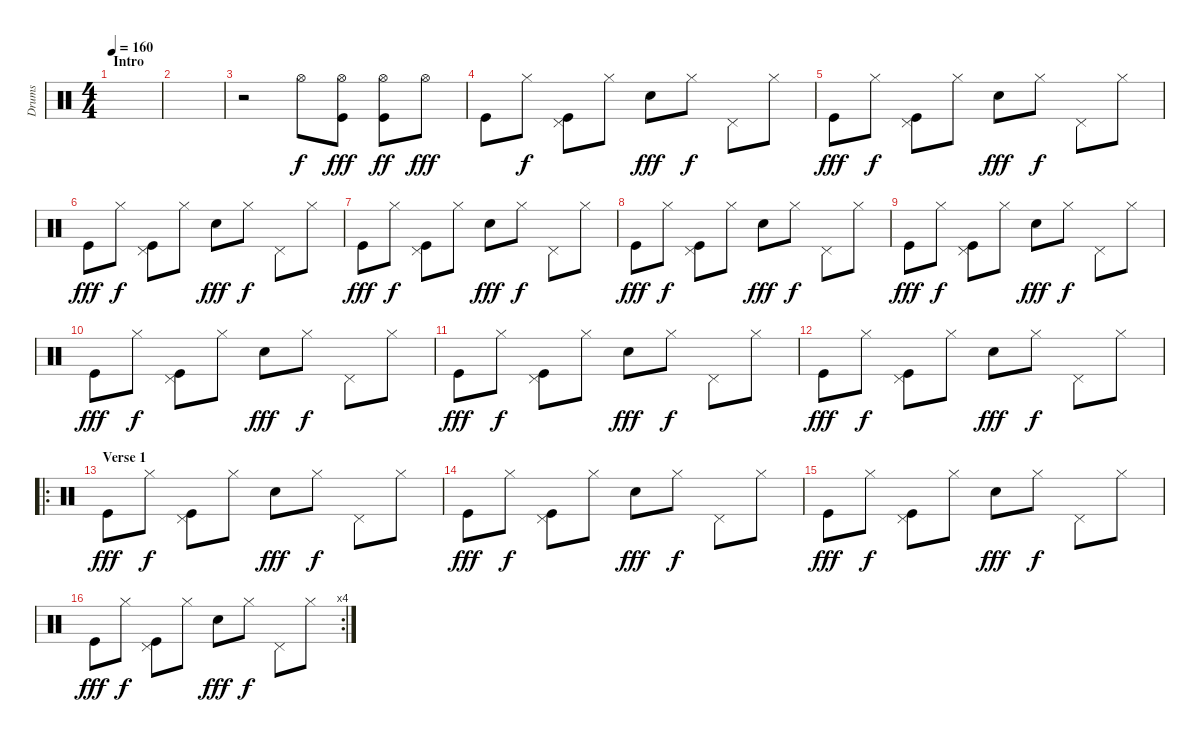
\track ("Drums" "Drums") {instrument percussion}
\staff {score}
\articulation defaults
\ts (4 4)
\section ("" "Intro")
\tempo 160
\clef neutral
\ks c
|
|
r.2 "Hi-Hat (open)".8 ("Kick (hit)" "Hi-Hat (open)").8{dy fff} ("Kick (hit)" "Hi-Hat (open)").8{dy ff} "Hi-Hat (open)".8{dy fff} |
"Kick (hit)".8 "Hi-Hat (closed)".8{dy f} ("Kick (hit)" "Pedal Hi-Hat (hit)").8 "Hi-Hat (closed)".8 "Snare (hit) 2".8{dy fff} "Hi-Hat (closed)".8{dy f} "Pedal Hi-Hat (hit)".8 "Hi-Hat (closed)".8 |
"Kick (hit)".8{dy fff} "Hi-Hat (closed)".8{dy f} ("Kick (hit)" "Pedal Hi-Hat (hit)").8 "Hi-Hat (closed)".8 "Snare (hit) 2".8{dy fff} "Hi-Hat (closed)".8{dy f} "Pedal Hi-Hat (hit)".8 "Hi-Hat (closed)".8 |
"Kick (hit)".8{dy fff} "Hi-Hat (closed)".8{dy f} ("Kick (hit)" "Pedal Hi-Hat (hit)").8 "Hi-Hat (closed)".8 "Snare (hit) 2".8{dy fff} "Hi-Hat (closed)".8{dy f} "Pedal Hi-Hat (hit)".8 "Hi-Hat (closed)".8 |
"Kick (hit)".8{dy fff} "Hi-Hat (closed)".8{dy f} ("Kick (hit)" "Pedal Hi-Hat (hit)").8 "Hi-Hat (closed)".8 "Snare (hit) 2".8{dy fff} "Hi-Hat (closed)".8{dy f} "Pedal Hi-Hat (hit)".8 "Hi-Hat (closed)".8 |
"Kick (hit)".8{dy fff} "Hi-Hat (closed)".8{dy f} ("Kick (hit)" "Pedal Hi-Hat (hit)").8 "Hi-Hat (closed)".8 "Snare (hit) 2".8{dy fff} "Hi-Hat (closed)".8{dy f} "Pedal Hi-Hat (hit)".8 "Hi-Hat (closed)".8 |
"Kick (hit)".8{dy fff} "Hi-Hat (closed)".8{dy f} ("Kick (hit)" "Pedal Hi-Hat (hit)").8 "Hi-Hat (closed)".8 "Snare (hit) 2".8{dy fff} "Hi-Hat (closed)".8{dy f} "Pedal Hi-Hat (hit)".8 "Hi-Hat (closed)".8 |
"Kick (hit)".8{dy fff} "Hi-Hat (closed)".8{dy f} ("Kick (hit)" "Pedal Hi-Hat (hit)").8 "Hi-Hat (closed)".8 "Snare (hit) 2".8{dy fff} "Hi-Hat (closed)".8{dy f} "Pedal Hi-Hat (hit)".8 "Hi-Hat (closed)".8 |
"Kick (hit)".8{dy fff} "Hi-Hat (closed)".8{dy f} ("Kick (hit)" "Pedal Hi-Hat (hit)").8 "Hi-Hat (closed)".8 "Snare (hit) 2".8{dy fff} "Hi-Hat (closed)".8{dy f} "Pedal Hi-Hat (hit)".8 "Hi-Hat (closed)".8 |
"Kick (hit)".8{dy fff} "Hi-Hat (closed)".8{dy f} ("Kick (hit)" "Pedal Hi-Hat (hit)").8 "Hi-Hat (closed)".8 "Snare (hit) 2".8{dy fff} "Hi-Hat (closed)".8{dy f} "Pedal Hi-Hat (hit)".8 "Hi-Hat (closed)".8 |
\ro
\section ("" "Verse 1")
"Kick (hit)".8{dy fff} "Hi-Hat (closed)".8{dy f} ("Kick (hit)" "Pedal Hi-Hat (hit)").8 "Hi-Hat (closed)".8 "Snare (hit) 2".8{dy fff} "Hi-Hat (closed)".8{dy f} "Pedal Hi-Hat (hit)".8 "Hi-Hat (closed)".8 |
"Kick (hit)".8{dy fff} "Hi-Hat (closed)".8{dy f} ("Kick (hit)" "Pedal Hi-Hat (hit)").8 "Hi-Hat (closed)".8 "Snare (hit) 2".8{dy fff} "Hi-Hat (closed)".8{dy f} "Pedal Hi-Hat (hit)".8 "Hi-Hat (closed)".8 |
"Kick (hit)".8{dy fff} "Hi-Hat (closed)".8{dy f} ("Kick (hit)" "Pedal Hi-Hat (hit)").8 "Hi-Hat (closed)".8 "Snare (hit) 2".8{dy fff} "Hi-Hat (closed)".8{dy f} "Pedal Hi-Hat (hit)".8 "Hi-Hat (closed)".8 |
\rc 4 "Kick (hit)".8{dy fff} "Hi-Hat (closed)".8{dy f}
("Kick (hit)" "Pedal Hi-Hat (hit)").8 "Hi-Hat (closed)".8 "Snare (hit) 2".8{dy fff} "Hi-Hat (closed)".8{dy f} "Pedal Hi-Hat (hit)".8 "Hi-Hat (closed)".8
